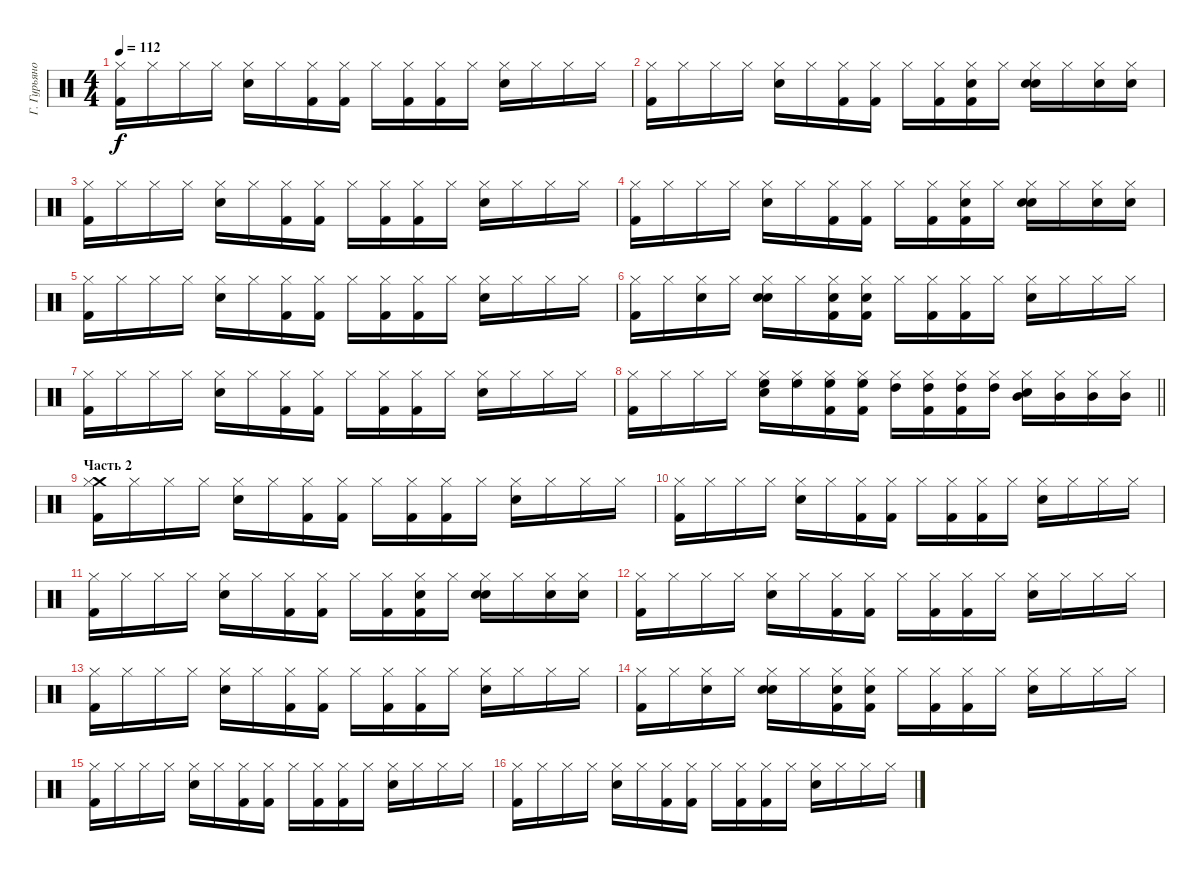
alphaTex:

\track ("Г. Гурьянов" "Г. Гурьяно") {instrument percussion}
\staff {score}
\articulation defaults
\ts (4 4)
\tempo 112
\clef neutral
\ks c
("Kick (hit) 2" "Hi-Hat (closed)").16{dy f} "Hi-Hat (closed)".16 "Hi-Hat (closed)".16 "Hi-Hat (closed)".16 ("Snare (hit) 2" "Hi-Hat (closed)").16 "Hi-Hat (closed)".16 ("Kick (hit) 2" "Hi-Hat (closed)").16 ("Kick (hit) 2" "Hi-Hat (closed)").16 "Hi-Hat (closed)".16 ("Kick (hit) 2" "Hi-Hat (closed)").16 ("Kick (hit) 2" "Hi-Hat (closed)").16 "Hi-Hat (closed)".16 ("Snare (hit) 2" "Hi-Hat (closed)").16 "Hi-Hat (closed)".16 "Hi-Hat (closed)".16 "Hi-Hat (closed)".16 |
("Kick (hit) 2" "Hi-Hat (closed)").16 "Hi-Hat (closed)".16 "Hi-Hat (closed)".16 "Hi-Hat (closed)".16 ("Snare (hit) 2" "Hi-Hat (closed)").16 "Hi-Hat (closed)".16 ("Kick (hit) 2" "Hi-Hat (closed)").16 ("Kick (hit) 2" "Hi-Hat (closed)").16 "Hi-Hat (closed)".16 ("Kick (hit) 2" "Hi-Hat (closed)").16 ("Kick (hit) 2" "Hand Clap (hit)" "Hi-Hat (closed)").16 "Hi-Hat (closed)".16 ("Snare (hit) 2" "Hand Clap (hit)" "Hi-Hat (closed)").16 "Hi-Hat (closed)".16 ("Hand Clap (hit)" "Hi-Hat (closed)").16 ("Hand Clap (hit)" "Hi-Hat (closed)").16 |
("Kick (hit) 2" "Hi-Hat (closed)").16 "Hi-Hat (closed)".16 "Hi-Hat (closed)".16 "Hi-Hat (closed)".16 ("Snare (hit) 2" "Hi-Hat (closed)").16 "Hi-Hat (closed)".16 ("Kick (hit) 2" "Hi-Hat (closed)").16 ("Kick (hit) 2" "Hi-Hat (closed)").16 "Hi-Hat (closed)".16 ("Kick (hit) 2" "Hi-Hat (closed)").16 ("Kick (hit) 2" "Hi-Hat (closed)").16 "Hi-Hat (closed)".16 ("Snare (hit) 2" "Hi-Hat (closed)").16 "Hi-Hat (closed)".16 "Hi-Hat (closed)".16 "Hi-Hat (closed)".16 |
("Kick (hit) 2" "Hi-Hat (closed)").16 "Hi-Hat (closed)".16 "Hi-Hat (closed)".16 "Hi-Hat (closed)".16 ("Snare (hit) 2" "Hi-Hat (closed)").16 "Hi-Hat (closed)".16 ("Kick (hit) 2" "Hi-Hat (closed)").16 ("Kick (hit) 2" "Hi-Hat (closed)").16 "Hi-Hat (closed)".16 ("Kick (hit) 2" "Hi-Hat (closed)").16 ("Kick (hit) 2" "Hand Clap (hit)" "Hi-Hat (closed)").16 "Hi-Hat (closed)".16 ("Snare (hit) 2" "Hand Clap (hit)" "Hi-Hat (closed)").16 "Hi-Hat (closed)".16 ("Hand Clap (hit)" "Hi-Hat (closed)").16 ("Hand Clap (hit)" "Hi-Hat (closed)").16 |
("Kick (hit) 2" "Hi-Hat (closed)").16 "Hi-Hat (closed)".16 "Hi-Hat (closed)".16 "Hi-Hat (closed)".16 ("Snare (hit) 2" "Hi-Hat (closed)").16 "Hi-Hat (closed)".16 ("Kick (hit) 2" "Hi-Hat (closed)").16 ("Kick (hit) 2" "Hi-Hat (closed)").16 "Hi-Hat (closed)".16 ("Kick (hit) 2" "Hi-Hat (closed)").16 ("Kick (hit) 2" "Hi-Hat (closed)").16 "Hi-Hat (closed)".16 ("Snare (hit) 2" "Hi-Hat (closed)").16 "Hi-Hat (closed)".16 "Hi-Hat (closed)".16 "Hi-Hat (closed)".16 |
("Kick (hit) 2" "Hi-Hat (closed)").16 "Hi-Hat (closed)".16 ("Hand Clap (hit)" "Hi-Hat (closed)").16 "Hi-Hat (closed)".16 ("Snare (hit) 2" "Hand Clap (hit)" "Hi-Hat (closed)").16 "Hi-Hat (closed)".16 ("Kick (hit) 2" "Hand Clap (hit)" "Hi-Hat (closed)").16 ("Kick (hit) 2" "Hand Clap (hit)" "Hi-Hat (closed)").16 "Hi-Hat (closed)".16 ("Kick (hit) 2" "Hi-Hat (closed)").16 ("Kick (hit) 2" "Hi-Hat (closed)").16 "Hi-Hat (closed)".16 ("Snare (hit) 2" "Hi-Hat (closed)").16 "Hi-Hat (closed)".16 "Hi-Hat (closed)".16 "Hi-Hat (closed)".16 |
("Kick (hit) 2" "Hi-Hat (closed)").16 "Hi-Hat (closed)".16 "Hi-Hat (closed)".16 "Hi-Hat (closed)".16 ("Snare (hit) 2" "Hi-Hat (closed)").16 "Hi-Hat (closed)".16 ("Kick (hit) 2" "Hi-Hat (closed)").16 ("Kick (hit) 2" "Hi-Hat (closed)").16 "Hi-Hat (closed)".16 ("Kick (hit) 2" "Hi-Hat (closed)").16 ("Kick (hit) 2" "Hi-Hat (closed)").16 "Hi-Hat (closed)".16 ("Snare (hit) 2" "Hi-Hat (closed)").16 "Hi-Hat (closed)".16 "Hi-Hat (closed)".16 "Hi-Hat (closed)".16 |
\barLineRight lightlight
("Kick (hit) 2" "Hi-Hat (closed)").16 "Hi-Hat (closed)".16 "Hi-Hat (closed)".16 "Hi-Hat (closed)".16 ("Snare (hit) 2" "High Floor Tom (hit)" "Hi-Hat (closed)").16 ("High Floor Tom (hit)" "Hi-Hat (closed)").16 ("Kick (hit) 2" "High Floor Tom (hit)" "Hi-Hat (closed)").16 ("Kick (hit) 2" "High Floor Tom (hit)" "Hi-Hat (closed)").16 ("High Tom (hit)" "Hi-Hat (closed)").16 ("Kick (hit) 2" "High Tom (hit)" "Hi-Hat (closed)").16 ("Kick (hit) 2" "High Tom (hit)" "Hi-Hat (closed)").16 ("High Tom (hit)" "Hi-Hat (closed)").16 ("Snare (hit) 2" "Mid Tom (hit)" "Hi-Hat (closed)").16 ("Mid Tom (hit)" "Hi-Hat (closed)").16 ("Mid Tom (hit)" "Hi-Hat (closed)").16 ("Mid Tom (hit)" "Hi-Hat (closed)").16 |
\section ("" "Часть 2")
("Kick (hit) 2" "Crash medium (hit)" "Hi-Hat (closed)").16 "Hi-Hat (closed)".16 "Hi-Hat (closed)".16 "Hi-Hat (closed)".16 ("Snare (hit) 2" "Hi-Hat (closed)").16 "Hi-Hat (closed)".16 ("Kick (hit) 2" "Hi-Hat (closed)").16 ("Kick (hit) 2" "Hi-Hat (closed)").16 "Hi-Hat (closed)".16 ("Kick (hit) 2" "Hi-Hat (closed)").16 ("Kick (hit) 2" "Hi-Hat (closed)").16 "Hi-Hat (closed)".16 ("Snare (hit) 2" "Hi-Hat (closed)").16 "Hi-Hat (closed)".16 "Hi-Hat (closed)".16 "Hi-Hat (closed)".16 |
("Kick (hit) 2" "Hi-Hat (closed)").16 "Hi-Hat (closed)".16 "Hi-Hat (closed)".16 "Hi-Hat (closed)".16 ("Snare (hit) 2" "Hi-Hat (closed)").16 "Hi-Hat (closed)".16 ("Kick (hit) 2" "Hi-Hat (closed)").16 ("Kick (hit) 2" "Hi-Hat (closed)").16 "Hi-Hat (closed)".16 ("Kick (hit) 2" "Hi-Hat (closed)").16 ("Kick (hit) 2" "Hi-Hat (closed)").16 "Hi-Hat (closed)".16 ("Snare (hit) 2" "Hi-Hat (closed)").16 "Hi-Hat (closed)".16 "Hi-Hat (closed)".16 "Hi-Hat (closed)".16 |
("Kick (hit) 2" "Hi-Hat (closed)").16 "Hi-Hat (closed)".16 "Hi-Hat (closed)".16 "Hi-Hat (closed)".16 ("Snare (hit) 2" "Hi-Hat (closed)").16 "Hi-Hat (closed)".16 ("Kick (hit) 2" "Hi-Hat (closed)").16 ("Kick (hit) 2" "Hi-Hat (closed)").16 "Hi-Hat (closed)".16 ("Kick (hit) 2" "Hi-Hat (closed)").16 ("Kick (hit) 2" "Hand Clap (hit)" "Hi-Hat (closed)").16 "Hi-Hat (closed)".16 ("Snare (hit) 2" "Hand Clap (hit)" "Hi-Hat (closed)").16 "Hi-Hat (closed)".16 ("Hand Clap (hit)" "Hi-Hat (closed)").16 ("Hand Clap (hit)" "Hi-Hat (closed)").16 |
("Kick (hit) 2" "Hi-Hat (closed)").16 "Hi-Hat (closed)".16 "Hi-Hat (closed)".16 "Hi-Hat (closed)".16 ("Snare (hit) 2" "Hi-Hat (closed)").16 "Hi-Hat (closed)".16 ("Kick (hit) 2" "Hi-Hat (closed)").16 ("Kick (hit) 2" "Hi-Hat (closed)").16 "Hi-Hat (closed)".16 ("Kick (hit) 2" "Hi-Hat (closed)").16 ("Kick (hit) 2" "Hi-Hat (closed)").16 "Hi-Hat (closed)".16 ("Snare (hit) 2" "Hi-Hat (closed)").16 "Hi-Hat (closed)".16 "Hi-Hat (closed)".16 "Hi-Hat (closed)".16 |
("Kick (hit) 2" "Hi-Hat (closed)").16 "Hi-Hat (closed)".16 "Hi-Hat (closed)".16 "Hi-Hat (closed)".16 ("Snare (hit) 2" "Hi-Hat (closed)").16 "Hi-Hat (closed)".16 ("Kick (hit) 2" "Hi-Hat (closed)").16 ("Kick (hit) 2" "Hi-Hat (closed)").16 "Hi-Hat (closed)".16 ("Kick (hit) 2" "Hi-Hat (closed)").16 ("Kick (hit) 2" "Hi-Hat (closed)").16 "Hi-Hat (closed)".16 ("Snare (hit) 2" "Hi-Hat (closed)").16 "Hi-Hat (closed)".16 "Hi-Hat (closed)".16 "Hi-Hat (closed)".16 |
("Kick (hit) 2" "Hi-Hat (closed)").16 "Hi-Hat (closed)".16 ("Hand Clap (hit)" "Hi-Hat (closed)").16 "Hi-Hat (closed)".16 ("Snare (hit) 2" "Hand Clap (hit)" "Hi-Hat (closed)").16 "Hi-Hat (closed)".16 ("Kick (hit) 2" "Hand Clap (hit)" "Hi-Hat (closed)").16 ("Kick (hit) 2" "Hand Clap (hit)" "Hi-Hat (closed)").16 "Hi-Hat (closed)".16 ("Kick (hit) 2" "Hi-Hat (closed)").16 ("Kick (hit) 2" "Hi-Hat (closed)").16 "Hi-Hat (closed)".16 ("Snare (hit) 2" "Hi-Hat (closed)").16 "Hi-Hat (closed)".16 "Hi-Hat (closed)".16 "Hi-Hat (closed)".16 |
("Kick (hit) 2" "Hi-Hat (closed)").16 "Hi-Hat (closed)".16 "Hi-Hat (closed)".16 "Hi-Hat (closed)".16 ("Snare (hit) 2" "Hi-Hat (closed)").16 "Hi-Hat (closed)".16 ("Kick (hit) 2" "Hi-Hat (closed)").16 ("Kick (hit) 2" "Hi-Hat (closed)").16 "Hi-Hat (closed)".16 ("Kick (hit) 2" "Hi-Hat (closed)").16 ("Kick (hit) 2" "Hi-Hat (closed)").16 "Hi-Hat (closed)".16 ("Snare (hit) 2" "Hi-Hat (closed)").16 "Hi-Hat (closed)".16 "Hi-Hat (closed)".16 "Hi-Hat (closed)".16 |
("Kick (hit) 2" "Hi-Hat (closed)").16 "Hi-Hat (closed)".16 "Hi-Hat (closed)".16 "Hi-Hat (closed)".16 ("Snare (hit) 2" "Hi-Hat (closed)").16 "Hi-Hat (closed)".16 ("Kick (hit) 2" "Hi-Hat (closed)").16 ("Kick (hit) 2" "Hi-Hat (closed)").16 "Hi-Hat (closed)".16 ("Kick (hit) 2" "Hi-Hat (closed)").16 ("Kick (hit) 2" "Hi-Hat (closed)").16 "Hi-Hat (closed)".16 ("Snare (hit) 2" "Hi-Hat (closed)").16 "Hi-Hat (closed)".16 "Hi-Hat (closed)".16 "Hi-Hat (closed)".16
